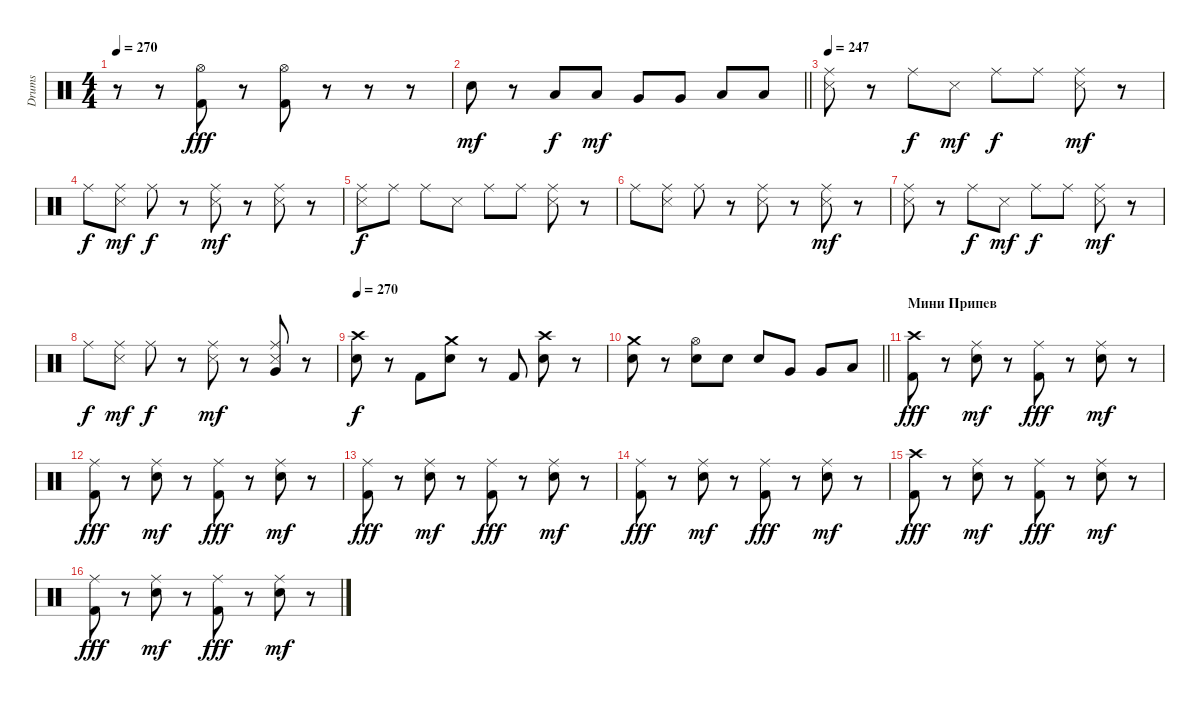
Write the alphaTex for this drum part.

\track ("Drums" "Drums") {instrument percussion}
\staff {score}
\articulation defaults
\ts (4 4)
\tempo 270
\clef neutral
\ks c
r.8{dy mf} r.8 ("Hi-Hat (open)" "Kick (hit) 2").8{dy fff} r.8 ("Hi-Hat (open)" "Kick (hit) 2").8 r.8 r.8 r.8 |
\barLineRight lightlight "Electric Snare (hit)".8{dy mf}
r.8 "Low Tom (hit)".8{dy f} "Low Tom (hit)".8{dy mf} "Very Low Tom (hit)".8 "Very Low Tom (hit)".8 "Low Floor Tom (hit)".8 "Low Floor Tom (hit)".8 |
\section ("" "")
\tempo 247
("Ride (middle)" "Metronome (hit)").8 r.8 "Ride (middle)".8{dy f} "Metronome (hit)".8{dy mf} "Ride (middle)".8{dy f} "Ride (middle)".8 ("Ride (middle)" "Metronome (hit)").8{dy mf} r.8 |
"Ride (middle)".8{dy f} ("Ride (middle)" "Metronome (hit)").8{dy mf} "Ride (middle)".8{dy f} r.8 ("Ride (middle)" "Metronome (hit)").8{dy mf} r.8 ("Ride (middle)" "Metronome (hit)").8 r.8 |
("Ride (middle)" "Metronome (hit)").8{dy f} "Ride (middle)".8 "Ride (middle)".8 "Metronome (hit)".8 "Ride (middle)".8 "Ride (middle)".8 ("Ride (middle)" "Metronome (hit)").8 r.8 |
"Ride (middle)".8 ("Ride (middle)" "Metronome (hit)").8 "Ride (middle)".8 r.8 ("Ride (middle)" "Metronome (hit)").8 r.8 ("Ride (middle)" "Metronome (hit)").8{dy mf} r.8 |
("Ride (middle)" "Metronome (hit)").8 r.8 "Ride (middle)".8{dy f} "Metronome (hit)".8{dy mf} "Ride (middle)".8{dy f} "Ride (middle)".8 ("Ride (middle)" "Metronome (hit)").8{dy mf} r.8 |
"Ride (middle)".8{dy f} ("Ride (middle)" "Metronome (hit)").8{dy mf} "Ride (middle)".8{dy f} r.8 ("Ride (middle)" "Metronome (hit)").8{dy mf} r.8 ("Ride (middle)" "Very Low Tom (hit)" "Metronome (hit)").8 r.8 |
\tempo 270
("Crash high (hit)" "Electric Snare (hit)").8{dy f} r.8 "Kick (hit) 2".8 ("Crash medium (hit)" "Electric Snare (hit)").8 r.8 "Kick (hit) 2".8 ("Crash high (hit)" "Electric Snare (hit)").8 r.8 |
\barLineRight lightlight
("Crash medium (hit)" "Electric Snare (hit)").8 r.8 ("Hi-Hat (open)" "Electric Snare (hit)").8 "Electric Snare (hit)".8 "Electric Snare (hit)".8 "Very Low Tom (hit)".8 "Very Low Tom (hit)".8 "Low Floor Tom (hit)".8 |
\section ("" "Мини Припев")
("Crash high (hit)" "Kick (hit) 2").8{dy fff} r.8 ("Ride (middle)" "Electric Snare (hit)").8{dy mf} r.8 ("Ride (middle)" "Kick (hit) 2").8{dy fff} r.8 ("Ride (middle)" "Electric Snare (hit)").8{dy mf} r.8 |
("Ride (middle)" "Kick (hit) 2").8{dy fff} r.8 ("Ride (middle)" "Electric Snare (hit)").8{dy mf} r.8 ("Ride (middle)" "Kick (hit) 2").8{dy fff} r.8 ("Ride (middle)" "Electric Snare (hit)").8{dy mf} r.8 |
("Ride (middle)" "Kick (hit) 2").8{dy fff} r.8 ("Ride (middle)" "Electric Snare (hit)").8{dy mf} r.8 ("Ride (middle)" "Kick (hit) 2").8{dy fff} r.8 ("Ride (middle)" "Electric Snare (hit)").8{dy mf} r.8 |
("Ride (middle)" "Kick (hit) 2").8{dy fff} r.8 ("Ride (middle)" "Electric Snare (hit)").8{dy mf} r.8 ("Ride (middle)" "Kick (hit) 2").8{dy fff} r.8 ("Ride (middle)" "Electric Snare (hit)").8{dy mf} r.8 |
("Crash high (hit)" "Kick (hit) 2").8{dy fff} r.8 ("Ride (middle)" "Electric Snare (hit)").8{dy mf} r.8 ("Ride (middle)" "Kick (hit) 2").8{dy fff} r.8 ("Ride (middle)" "Electric Snare (hit)").8{dy mf} r.8 |
("Ride (middle)" "Kick (hit) 2").8{dy fff} r.8 ("Ride (middle)" "Electric Snare (hit)").8{dy mf} r.8 ("Ride (middle)" "Kick (hit) 2").8{dy fff} r.8 ("Ride (middle)" "Electric Snare (hit)").8{dy mf} r.8
